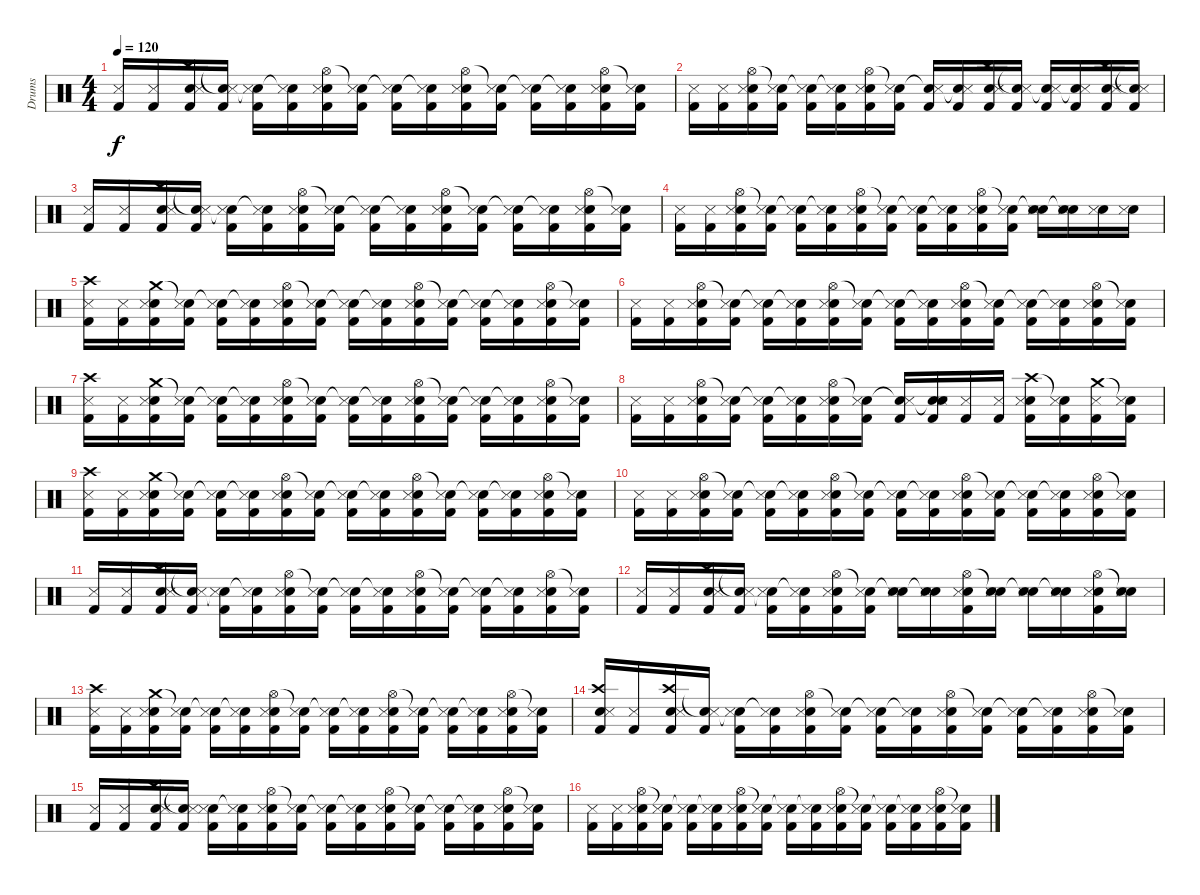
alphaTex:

\track ("Drums" "Drums") {instrument percussion}
\staff {score}
\articulation defaults
\ts (4 4)
\tempo 120
\clef neutral
\ks c
("Kick (hit) 2" "Snare (side stick) 3").16{dy f} ("Kick (hit) 2" "Snare (side stick) 3").16 ("Crash high (hit)" "Electric Snare (hit)" "Kick (hit) 2" "Snare (side stick) 3").16 ("Snare (hit)"{t} "Kick (hit) 2" "Snare (side stick) 3").16 ("Snare (hit)"{t} "Kick (hit) 2" "Snare (side stick) 3").16 ("Snare (hit)"{t} "Kick (hit) 2" "Snare (side stick) 3").16 ("Hi-Hat (open)" "Electric Snare (hit)" "Kick (hit) 2" "Snare (side stick) 3").16 ("Snare (hit)"{t} "Kick (hit) 2" "Snare (side stick) 3").16 ("Snare (hit)"{t} "Kick (hit) 2" "Snare (side stick) 3").16 ("Snare (hit)"{t} "Kick (hit) 2" "Snare (side stick) 3").16 ("Hi-Hat (open)" "Electric Snare (hit)" "Kick (hit) 2" "Snare (side stick) 3").16 ("Snare (hit)"{t} "Kick (hit) 2" "Snare (side stick) 3").16 ("Snare (hit)"{t} "Kick (hit) 2" "Snare (side stick) 3").16 ("Snare (hit)"{t} "Kick (hit) 2" "Snare (side stick) 3").16 ("Hi-Hat (open)" "Electric Snare (hit)" "Kick (hit) 2" "Snare (side stick) 3").16 ("Snare (hit)"{t} "Kick (hit) 2" "Snare (side stick) 3").16 |
("Kick (hit) 2" "Snare (side stick) 3").16 ("Kick (hit) 2" "Snare (side stick) 3").16 ("Hi-Hat (open)" "Electric Snare (hit)" "Kick (hit) 2" "Snare (side stick) 3").16 ("Snare (hit)"{t} "Kick (hit) 2" "Snare (side stick) 3").16 ("Snare (hit)"{t} "Kick (hit) 2" "Snare (side stick) 3").16 ("Snare (hit)"{t} "Kick (hit) 2" "Snare (side stick) 3").16 ("Hi-Hat (open)" "Electric Snare (hit)" "Kick (hit) 2" "Snare (side stick) 3").16 ("Snare (hit)"{t} "Kick (hit) 2" "Snare (side stick) 3").16 ("Snare (hit)"{t} "Kick (hit) 2" "Snare (side stick) 3").16 ("Snare (hit)"{t} "Kick (hit) 2" "Snare (side stick) 3").16 ("Crash high (hit)" "Electric Snare (hit)" "Kick (hit) 2" "Snare (side stick) 3").16 ("Snare (hit)"{t} "Kick (hit) 2" "Snare (side stick) 3").16 ("Snare (hit)"{t} "Kick (hit) 2" "Snare (side stick) 3").16 ("Snare (hit)"{t} "Kick (hit) 2" "Snare (side stick) 3").16 ("Crash high (hit)" "Electric Snare (hit)" "Kick (hit) 2" "Snare (side stick) 3").16 ("Snare (hit)"{t} "Kick (hit) 2" "Snare (side stick) 3").16 |
("Kick (hit) 2" "Snare (side stick) 3").16 ("Kick (hit) 2" "Snare (side stick) 3").16 ("Crash high (hit)" "Electric Snare (hit)" "Kick (hit) 2" "Snare (side stick) 3").16 ("Snare (hit)"{t} "Kick (hit) 2" "Snare (side stick) 3").16 ("Snare (hit)"{t} "Kick (hit) 2" "Snare (side stick) 3").16 ("Snare (hit)"{t} "Kick (hit) 2" "Snare (side stick) 3").16 ("Hi-Hat (open)" "Electric Snare (hit)" "Kick (hit) 2" "Snare (side stick) 3").16 ("Snare (hit)"{t} "Kick (hit) 2" "Snare (side stick) 3").16 ("Snare (hit)"{t} "Kick (hit) 2" "Snare (side stick) 3").16 ("Snare (hit)"{t} "Kick (hit) 2" "Snare (side stick) 3").16 ("Hi-Hat (open)" "Electric Snare (hit)" "Kick (hit) 2" "Snare (side stick) 3").16 ("Snare (hit)"{t} "Kick (hit) 2" "Snare (side stick) 3").16 ("Snare (hit)"{t} "Kick (hit) 2" "Snare (side stick) 3").16 ("Snare (hit)"{t} "Kick (hit) 2" "Snare (side stick) 3").16 ("Hi-Hat (open)" "Electric Snare (hit)" "Kick (hit) 2" "Snare (side stick) 3").16 ("Snare (hit)"{t} "Kick (hit) 2" "Snare (side stick) 3").16 |
("Kick (hit) 2" "Snare (side stick) 3").16 ("Kick (hit) 2" "Snare (side stick) 3").16 ("Hi-Hat (open)" "Electric Snare (hit)" "Kick (hit) 2" "Snare (side stick) 3").16 ("Snare (hit)"{t} "Kick (hit) 2" "Snare (side stick) 3").16 ("Snare (hit)"{t} "Kick (hit) 2" "Snare (side stick) 3").16 ("Snare (hit)"{t} "Kick (hit) 2" "Snare (side stick) 3").16 ("Hi-Hat (open)" "Electric Snare (hit)" "Kick (hit) 2" "Snare (side stick) 3").16 ("Snare (hit)"{t} "Kick (hit) 2" "Snare (side stick) 3").16 ("Snare (hit)"{t} "Kick (hit) 2" "Snare (side stick) 3").16 ("Snare (hit)"{t} "Kick (hit) 2" "Snare (side stick) 3").16 ("Hi-Hat (open)" "Electric Snare (hit)" "Kick (hit) 2" "Snare (side stick) 3").16 ("Snare (hit)"{t} "Kick (hit) 2" "Snare (side stick) 3").16 ("Snare (hit)"{t} "Electric Snare (hit)" "Snare (side stick) 3").16 ("Snare (hit)"{t} "Electric Snare (hit)" "Snare (side stick) 3").16 ("Electric Snare (hit)" "Snare (side stick) 3").16 ("Electric Snare (hit)" "Snare (side stick) 3").16 |
("Crash high (hit)" "Kick (hit) 2" "Snare (side stick) 3").16 ("Kick (hit) 2" "Snare (side stick) 3").16 ("Crash medium (hit)" "Electric Snare (hit)" "Kick (hit) 2" "Snare (side stick) 3").16 ("Snare (hit)"{t} "Kick (hit) 2" "Snare (side stick) 3").16 ("Snare (hit)"{t} "Kick (hit) 2" "Snare (side stick) 3").16 ("Snare (hit)"{t} "Kick (hit) 2" "Snare (side stick) 3").16 ("Hi-Hat (open)" "Electric Snare (hit)" "Kick (hit) 2" "Snare (side stick) 3").16 ("Snare (hit)"{t} "Kick (hit) 2" "Snare (side stick) 3").16 ("Snare (hit)"{t} "Kick (hit) 2" "Snare (side stick) 3").16 ("Snare (hit)"{t} "Kick (hit) 2" "Snare (side stick) 3").16 ("Hi-Hat (open)" "Electric Snare (hit)" "Kick (hit) 2" "Snare (side stick) 3").16 ("Snare (hit)"{t} "Kick (hit) 2" "Snare (side stick) 3").16 ("Snare (hit)"{t} "Kick (hit) 2" "Snare (side stick) 3").16 ("Snare (hit)"{t} "Kick (hit) 2" "Snare (side stick) 3").16 ("Hi-Hat (open)" "Electric Snare (hit)" "Kick (hit) 2" "Snare (side stick) 3").16 ("Snare (hit)"{t} "Kick (hit) 2" "Snare (side stick) 3").16 |
("Kick (hit) 2" "Snare (side stick) 3").16 ("Kick (hit) 2" "Snare (side stick) 3").16 ("Hi-Hat (open)" "Electric Snare (hit)" "Kick (hit) 2" "Snare (side stick) 3").16 ("Snare (hit)"{t} "Kick (hit) 2" "Snare (side stick) 3").16 ("Snare (hit)"{t} "Kick (hit) 2" "Snare (side stick) 3").16 ("Snare (hit)"{t} "Kick (hit) 2" "Snare (side stick) 3").16 ("Hi-Hat (open)" "Electric Snare (hit)" "Kick (hit) 2" "Snare (side stick) 3").16 ("Snare (hit)"{t} "Kick (hit) 2" "Snare (side stick) 3").16 ("Snare (hit)"{t} "Kick (hit) 2" "Snare (side stick) 3").16 ("Snare (hit)"{t} "Kick (hit) 2" "Snare (side stick) 3").16 ("Hi-Hat (open)" "Electric Snare (hit)" "Kick (hit) 2" "Snare (side stick) 3").16 ("Snare (hit)"{t} "Kick (hit) 2" "Snare (side stick) 3").16 ("Snare (hit)"{t} "Kick (hit) 2" "Snare (side stick) 3").16 ("Snare (hit)"{t} "Kick (hit) 2" "Snare (side stick) 3").16 ("Hi-Hat (open)" "Electric Snare (hit)" "Kick (hit) 2" "Snare (side stick) 3").16 ("Snare (hit)"{t} "Kick (hit) 2" "Snare (side stick) 3").16 |
("Crash high (hit)" "Kick (hit) 2" "Snare (side stick) 3").16 ("Kick (hit) 2" "Snare (side stick) 3").16 ("Crash medium (hit)" "Electric Snare (hit)" "Kick (hit) 2" "Snare (side stick) 3").16 ("Snare (hit)"{t} "Kick (hit) 2" "Snare (side stick) 3").16 ("Snare (hit)"{t} "Kick (hit) 2" "Snare (side stick) 3").16 ("Snare (hit)"{t} "Kick (hit) 2" "Snare (side stick) 3").16 ("Hi-Hat (open)" "Electric Snare (hit)" "Kick (hit) 2" "Snare (side stick) 3").16 ("Snare (hit)"{t} "Kick (hit) 2" "Snare (side stick) 3").16 ("Snare (hit)"{t} "Kick (hit) 2" "Snare (side stick) 3").16 ("Snare (hit)"{t} "Kick (hit) 2" "Snare (side stick) 3").16 ("Hi-Hat (open)" "Electric Snare (hit)" "Kick (hit) 2" "Snare (side stick) 3").16 ("Snare (hit)"{t} "Kick (hit) 2" "Snare (side stick) 3").16 ("Snare (hit)"{t} "Kick (hit) 2" "Snare (side stick) 3").16 ("Snare (hit)"{t} "Kick (hit) 2" "Snare (side stick) 3").16 ("Hi-Hat (open)" "Electric Snare (hit)" "Kick (hit) 2" "Snare (side stick) 3").16 ("Snare (hit)"{t} "Kick (hit) 2" "Snare (side stick) 3").16 |
("Kick (hit) 2" "Snare (side stick) 3").16 ("Kick (hit) 2" "Snare (side stick) 3").16 ("Hi-Hat (open)" "Electric Snare (hit)" "Kick (hit) 2" "Snare (side stick) 3").16 ("Snare (hit)"{t} "Kick (hit) 2" "Snare (side stick) 3").16 ("Snare (hit)"{t} "Kick (hit) 2" "Snare (side stick) 3").16 ("Snare (hit)"{t} "Kick (hit) 2" "Snare (side stick) 3").16 ("Hi-Hat (open)" "Electric Snare (hit)" "Kick (hit) 2" "Snare (side stick) 3").16 ("Snare (hit)"{t} "Kick (hit) 2" "Snare (side stick) 3").16 ("Snare (hit)"{t} "Kick (hit) 2" "Snare (side stick) 3").16 ("Snare (hit)"{t} "Electric Snare (hit)" "Kick (hit) 2" "Snare (side stick) 3").16 ("Kick (hit) 2" "Snare (side stick) 3").16 ("Kick (hit) 2" "Snare (side stick) 3").16 ("Crash high (hit)" "Electric Snare (hit)" "Kick (hit) 2" "Snare (side stick) 3").16 ("Snare (hit)"{t} "Kick (hit) 2" "Snare (side stick) 3").16 ("Crash medium (hit)" "Kick (hit) 2" "Snare (side stick) 3").16 ("Snare (hit)"{t} "Kick (hit) 2" "Snare (side stick) 3").16 |
("Crash high (hit)" "Kick (hit) 2" "Snare (side stick) 3").16 ("Kick (hit) 2" "Snare (side stick) 3").16 ("Crash medium (hit)" "Electric Snare (hit)" "Kick (hit) 2" "Snare (side stick) 3").16 ("Snare (hit)"{t} "Kick (hit) 2" "Snare (side stick) 3").16 ("Snare (hit)"{t} "Kick (hit) 2" "Snare (side stick) 3").16 ("Snare (hit)"{t} "Kick (hit) 2" "Snare (side stick) 3").16 ("Hi-Hat (open)" "Electric Snare (hit)" "Kick (hit) 2" "Snare (side stick) 3").16 ("Snare (hit)"{t} "Kick (hit) 2" "Snare (side stick) 3").16 ("Snare (hit)"{t} "Kick (hit) 2" "Snare (side stick) 3").16 ("Snare (hit)"{t} "Kick (hit) 2" "Snare (side stick) 3").16 ("Hi-Hat (open)" "Electric Snare (hit)" "Kick (hit) 2" "Snare (side stick) 3").16 ("Snare (hit)"{t} "Kick (hit) 2" "Snare (side stick) 3").16 ("Snare (hit)"{t} "Kick (hit) 2" "Snare (side stick) 3").16 ("Snare (hit)"{t} "Kick (hit) 2" "Snare (side stick) 3").16 ("Hi-Hat (open)" "Electric Snare (hit)" "Kick (hit) 2" "Snare (side stick) 3").16 ("Snare (hit)"{t} "Kick (hit) 2" "Snare (side stick) 3").16 |
("Kick (hit) 2" "Snare (side stick) 3").16 ("Kick (hit) 2" "Snare (side stick) 3").16 ("Hi-Hat (open)" "Electric Snare (hit)" "Kick (hit) 2" "Snare (side stick) 3").16 ("Snare (hit)"{t} "Kick (hit) 2" "Snare (side stick) 3").16 ("Snare (hit)"{t} "Kick (hit) 2" "Snare (side stick) 3").16 ("Snare (hit)"{t} "Kick (hit) 2" "Snare (side stick) 3").16 ("Hi-Hat (open)" "Electric Snare (hit)" "Kick (hit) 2" "Snare (side stick) 3").16 ("Snare (hit)"{t} "Kick (hit) 2" "Snare (side stick) 3").16 ("Snare (hit)"{t} "Kick (hit) 2" "Snare (side stick) 3").16 ("Snare (hit)"{t} "Kick (hit) 2" "Snare (side stick) 3").16 ("Hi-Hat (open)" "Electric Snare (hit)" "Kick (hit) 2" "Snare (side stick) 3").16 ("Snare (hit)"{t} "Kick (hit) 2" "Snare (side stick) 3").16 ("Snare (hit)"{t} "Kick (hit) 2" "Snare (side stick) 3").16 ("Snare (hit)"{t} "Kick (hit) 2" "Snare (side stick) 3").16 ("Hi-Hat (open)" "Electric Snare (hit)" "Kick (hit) 2" "Snare (side stick) 3").16 ("Snare (hit)"{t} "Kick (hit) 2" "Snare (side stick) 3").16 |
("Kick (hit) 2" "Snare (side stick) 3").16 ("Kick (hit) 2" "Snare (side stick) 3").16 ("Crash high (hit)" "Electric Snare (hit)" "Kick (hit) 2" "Snare (side stick) 3").16 ("Snare (hit)"{t} "Kick (hit) 2" "Snare (side stick) 3").16 ("Snare (hit)"{t} "Kick (hit) 2" "Snare (side stick) 3").16 ("Snare (hit)"{t} "Kick (hit) 2" "Snare (side stick) 3").16 ("Hi-Hat (open)" "Electric Snare (hit)" "Kick (hit) 2" "Snare (side stick) 3").16 ("Snare (hit)"{t} "Kick (hit) 2" "Snare (side stick) 3").16 ("Snare (hit)"{t} "Kick (hit) 2" "Snare (side stick) 3").16 ("Snare (hit)"{t} "Kick (hit) 2" "Snare (side stick) 3").16 ("Hi-Hat (open)" "Electric Snare (hit)" "Kick (hit) 2" "Snare (side stick) 3").16 ("Snare (hit)"{t} "Kick (hit) 2" "Snare (side stick) 3").16 ("Snare (hit)"{t} "Kick (hit) 2" "Snare (side stick) 3").16 ("Snare (hit)"{t} "Kick (hit) 2" "Snare (side stick) 3").16 ("Hi-Hat (open)" "Electric Snare (hit)" "Kick (hit) 2" "Snare (side stick) 3").16 ("Snare (hit)"{t} "Kick (hit) 2" "Snare (side stick) 3").16 |
("Kick (hit) 2" "Snare (side stick) 3").16 ("Kick (hit) 2" "Snare (side stick) 3").16 ("Crash high (hit)" "Electric Snare (hit)" "Kick (hit) 2" "Snare (side stick) 3").16 ("Snare (hit)"{t} "Kick (hit) 2" "Snare (side stick) 3").16 ("Snare (hit)"{t} "Kick (hit) 2" "Snare (side stick) 3").16 ("Snare (hit)"{t} "Kick (hit) 2" "Snare (side stick) 3").16 ("Hi-Hat (open)" "Electric Snare (hit)" "Kick (hit) 2" "Snare (side stick) 3").16 ("Snare (hit)"{t} "Kick (hit) 2" "Snare (side stick) 3").16 ("Snare (hit)"{t} "Electric Snare (hit)" "Snare (side stick) 3").16 ("Snare (hit)"{t} "Electric Snare (hit)" "Snare (side stick) 3").16 ("Hi-Hat (open)" "Electric Snare (hit)" "Kick (hit) 2" "Snare (side stick) 3").16 ("Snare (hit)"{t} "Electric Snare (hit)" "Snare (side stick) 3").16 ("Snare (hit)"{t} "Electric Snare (hit)" "Snare (side stick) 3").16 ("Snare (hit)"{t} "Electric Snare (hit)" "Snare (side stick) 3").16 ("Hi-Hat (open)" "Electric Snare (hit)" "Kick (hit) 2" "Snare (side stick) 3").16 ("Snare (hit)"{t} "Electric Snare (hit)" "Snare (side stick) 3").16 |
("Crash high (hit)" "Kick (hit) 2" "Snare (side stick) 3").16 ("Kick (hit) 2" "Snare (side stick) 3").16 ("Crash medium (hit)" "Electric Snare (hit)" "Kick (hit) 2" "Snare (side stick) 3").16 ("Snare (hit)"{t} "Kick (hit) 2" "Snare (side stick) 3").16 ("Snare (hit)"{t} "Kick (hit) 2" "Snare (side stick) 3").16 ("Snare (hit)"{t} "Kick (hit) 2" "Snare (side stick) 3").16 ("Hi-Hat (open)" "Electric Snare (hit)" "Kick (hit) 2" "Snare (side stick) 3").16 ("Snare (hit)"{t} "Kick (hit) 2" "Snare (side stick) 3").16 ("Snare (hit)"{t} "Kick (hit) 2" "Snare (side stick) 3").16 ("Snare (hit)"{t} "Kick (hit) 2" "Snare (side stick) 3").16 ("Hi-Hat (open)" "Electric Snare (hit)" "Kick (hit) 2" "Snare (side stick) 3").16 ("Snare (hit)"{t} "Kick (hit) 2" "Snare (side stick) 3").16 ("Snare (hit)"{t} "Kick (hit) 2" "Snare (side stick) 3").16 ("Snare (hit)"{t} "Kick (hit) 2" "Snare (side stick) 3").16 ("Hi-Hat (open)" "Electric Snare (hit)" "Kick (hit) 2" "Snare (side stick) 3").16 ("Snare (hit)"{t} "Kick (hit) 2" "Snare (side stick) 3").16 |
("Crash high (hit)" "Electric Snare (hit)" "Kick (hit) 2" "Snare (side stick) 3").16 ("Kick (hit) 2" "Snare (side stick) 3").16 ("Crash high (hit)" "Electric Snare (hit)" "Kick (hit) 2" "Snare (side stick) 3").16 ("Snare (hit)"{t} "Kick (hit) 2" "Snare (side stick) 3").16 ("Snare (hit)"{t} "Kick (hit) 2" "Snare (side stick) 3").16 ("Snare (hit)"{t} "Kick (hit) 2" "Snare (side stick) 3").16 ("Hi-Hat (open)" "Electric Snare (hit)" "Kick (hit) 2" "Snare (side stick) 3").16 ("Snare (hit)"{t} "Kick (hit) 2" "Snare (side stick) 3").16 ("Snare (hit)"{t} "Kick (hit) 2" "Snare (side stick) 3").16 ("Snare (hit)"{t} "Kick (hit) 2" "Snare (side stick) 3").16 ("Hi-Hat (open)" "Electric Snare (hit)" "Kick (hit) 2" "Snare (side stick) 3").16 ("Snare (hit)"{t} "Kick (hit) 2" "Snare (side stick) 3").16 ("Snare (hit)"{t} "Kick (hit) 2" "Snare (side stick) 3").16 ("Snare (hit)"{t} "Kick (hit) 2" "Snare (side stick) 3").16 ("Hi-Hat (open)" "Electric Snare (hit)" "Kick (hit) 2" "Snare (side stick) 3").16 ("Snare (hit)"{t} "Kick (hit) 2" "Snare (side stick) 3").16 |
("Kick (hit) 2" "Snare (side stick) 3").16 ("Kick (hit) 2" "Snare (side stick) 3").16 ("Crash high (hit)" "Electric Snare (hit)" "Kick (hit) 2" "Snare (side stick) 3").16 ("Snare (hit)"{t} "Kick (hit) 2" "Snare (side stick) 3").16 ("Snare (hit)"{t} "Kick (hit) 2" "Snare (side stick) 3").16 ("Snare (hit)"{t} "Kick (hit) 2" "Snare (side stick) 3").16 ("Hi-Hat (open)" "Electric Snare (hit)" "Kick (hit) 2" "Snare (side stick) 3").16 ("Snare (hit)"{t} "Kick (hit) 2" "Snare (side stick) 3").16 ("Snare (hit)"{t} "Kick (hit) 2" "Snare (side stick) 3").16 ("Snare (hit)"{t} "Kick (hit) 2" "Snare (side stick) 3").16 ("Hi-Hat (open)" "Electric Snare (hit)" "Kick (hit) 2" "Snare (side stick) 3").16 ("Snare (hit)"{t} "Kick (hit) 2" "Snare (side stick) 3").16 ("Snare (hit)"{t} "Kick (hit) 2" "Snare (side stick) 3").16 ("Snare (hit)"{t} "Kick (hit) 2" "Snare (side stick) 3").16 ("Hi-Hat (open)" "Electric Snare (hit)" "Kick (hit) 2" "Snare (side stick) 3").16 ("Snare (hit)"{t} "Kick (hit) 2" "Snare (side stick) 3").16 |
("Kick (hit) 2" "Snare (side stick) 3").16 ("Kick (hit) 2" "Snare (side stick) 3").16 ("Hi-Hat (open)" "Electric Snare (hit)" "Kick (hit) 2" "Snare (side stick) 3").16 ("Snare (hit)"{t} "Kick (hit) 2" "Snare (side stick) 3").16 ("Snare (hit)"{t} "Kick (hit) 2" "Snare (side stick) 3").16 ("Snare (hit)"{t} "Kick (hit) 2" "Snare (side stick) 3").16 ("Hi-Hat (open)" "Electric Snare (hit)" "Kick (hit) 2" "Snare (side stick) 3").16 ("Snare (hit)"{t} "Kick (hit) 2" "Snare (side stick) 3").16 ("Snare (hit)"{t} "Kick (hit) 2" "Snare (side stick) 3").16 ("Snare (hit)"{t} "Kick (hit) 2" "Snare (side stick) 3").16 ("Hi-Hat (open)" "Electric Snare (hit)" "Kick (hit) 2" "Snare (side stick) 3").16 ("Snare (hit)"{t} "Kick (hit) 2" "Snare (side stick) 3").16 ("Snare (hit)"{t} "Kick (hit) 2" "Snare (side stick) 3").16 ("Snare (hit)"{t} "Kick (hit) 2" "Snare (side stick) 3").16 ("Hi-Hat (open)" "Electric Snare (hit)" "Kick (hit) 2" "Snare (side stick) 3").16 ("Snare (hit)"{t} "Kick (hit) 2" "Snare (side stick) 3").16
